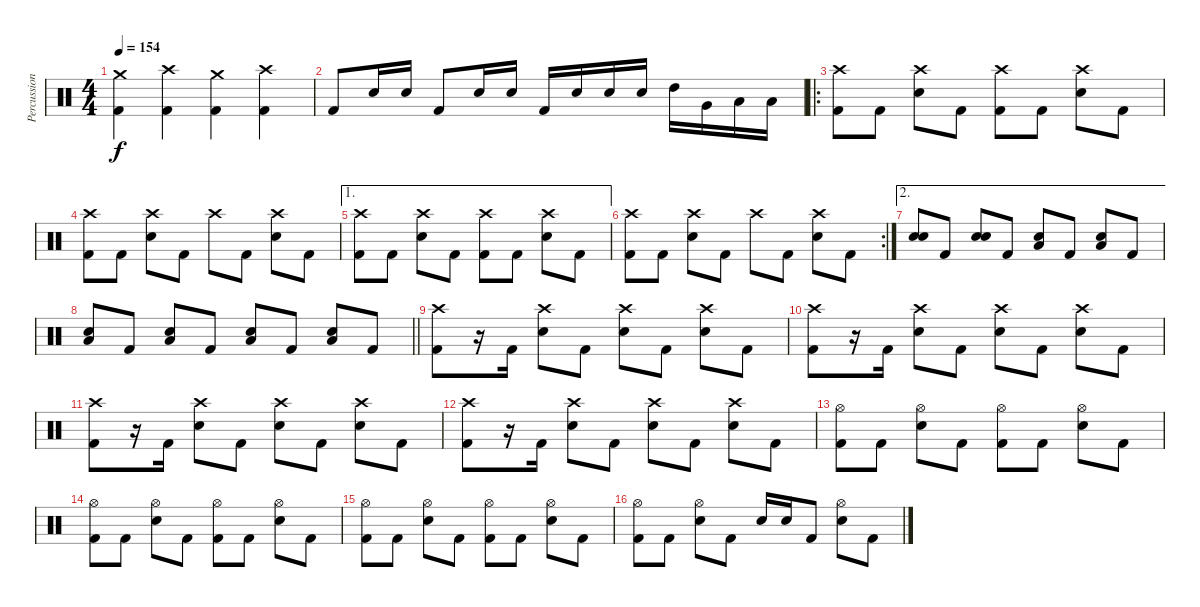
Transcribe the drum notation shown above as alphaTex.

\track ("Percussion" "Percussion") {instrument percussion}
\staff {score}
\articulation defaults
\ts (4 4)
\tempo 154
\clef neutral
\ks c
("Crash medium (hit)" "Kick (hit) 2").4{dy f} ("Crash high (hit)" "Kick (hit) 2").4 ("Crash medium (hit)" "Kick (hit) 2").4 ("Crash high (hit)" "Kick (hit) 2").4 |
"Kick (hit) 2".8 "Snare (hit) 2".16 "Snare (hit) 2".16 "Kick (hit) 2".8 "Snare (hit) 2".16 "Snare (hit) 2".16 "Kick (hit) 2".16 "Snare (hit) 2".16 "Snare (hit) 2".16 "Snare (hit) 2".16 "High Tom (hit)".16 "Very Low Tom (hit)".16 "Low Floor Tom (hit)".16 "Low Floor Tom (hit)".16 |
\ro
("Crash high (hit)" "Kick (hit) 2").8 "Kick (hit) 2".8 ("Crash high (hit)" "Snare (hit) 2").8 "Kick (hit) 2".8 ("Crash high (hit)" "Kick (hit) 2").8 "Kick (hit) 2".8 ("Crash high (hit)" "Snare (hit) 2").8 "Kick (hit) 2".8 |
("Crash high (hit)" "Kick (hit) 2").8 "Kick (hit) 2".8 ("Crash high (hit)" "Snare (hit) 2").8 "Kick (hit) 2".8 "Crash high (hit)".8 "Kick (hit) 2".8 ("Crash high (hit)" "Snare (hit) 2").8 "Kick (hit) 2".8 |
\ae 1
("Crash high (hit)" "Kick (hit) 2").8 "Kick (hit) 2".8 ("Crash high (hit)" "Snare (hit) 2").8 "Kick (hit) 2".8 ("Crash high (hit)" "Kick (hit) 2").8 "Kick (hit) 2".8 ("Crash high (hit)" "Snare (hit) 2").8 "Kick (hit) 2".8 |
\rc 2
("Crash high (hit)" "Kick (hit) 2").8 "Kick (hit) 2".8 ("Crash high (hit)" "Snare (hit) 2").8 "Kick (hit) 2".8 "Crash high (hit)".8 "Kick (hit) 2".8 ("Crash high (hit)" "Snare (hit) 2").8 "Kick (hit) 2".8 |
\ae 2
("Snare (hit) 2" "Snare (hit) 2").8 "Kick (hit) 2".8 ("Snare (hit) 2" "Snare (hit) 2").8 "Kick (hit) 2".8 ("Snare (hit) 2" "Low Floor Tom (hit)").8 "Kick (hit) 2".8 ("Snare (hit) 2" "Low Floor Tom (hit)").8 "Kick (hit) 2".8 |
\barLineRight lightlight
("Snare (hit) 2" "Low Floor Tom (hit)").8 "Kick (hit) 2".8 ("Snare (hit) 2" "Low Floor Tom (hit)").8 "Kick (hit) 2".8 ("Snare (hit) 2" "Low Floor Tom (hit)").8 "Kick (hit) 2".8 ("Snare (hit) 2" "Low Floor Tom (hit)").8 "Kick (hit) 2".8 |
("Crash high (hit)" "Kick (hit) 2").8 r.16 "Kick (hit) 2".16 ("Crash high (hit)" "Snare (hit) 2").8 "Kick (hit) 2".8 ("Crash high (hit)" "Snare (hit) 2").8 "Kick (hit) 2".8 ("Crash high (hit)" "Snare (hit) 2").8 "Kick (hit) 2".8 |
("Crash high (hit)" "Kick (hit) 2").8 r.16 "Kick (hit) 2".16 ("Crash high (hit)" "Snare (hit) 2").8 "Kick (hit) 2".8 ("Crash high (hit)" "Snare (hit) 2").8 "Kick (hit) 2".8 ("Crash high (hit)" "Snare (hit) 2").8 "Kick (hit) 2".8 |
("Crash high (hit)" "Kick (hit) 2").8 r.16 "Kick (hit) 2".16 ("Crash high (hit)" "Snare (hit) 2").8 "Kick (hit) 2".8 ("Crash high (hit)" "Snare (hit) 2").8 "Kick (hit) 2".8 ("Crash high (hit)" "Snare (hit) 2").8 "Kick (hit) 2".8 |
("Crash high (hit)" "Kick (hit) 2").8 r.16 "Kick (hit) 2".16 ("Crash high (hit)" "Snare (hit) 2").8 "Kick (hit) 2".8 ("Crash high (hit)" "Snare (hit) 2").8 "Kick (hit) 2".8 ("Crash high (hit)" "Snare (hit) 2").8 "Kick (hit) 2".8 |
("Hi-Hat (open)" "Kick (hit) 2").8 "Kick (hit) 2".8 ("Hi-Hat (open)" "Snare (hit) 2").8 "Kick (hit) 2".8 ("Hi-Hat (open)" "Kick (hit) 2").8 "Kick (hit) 2".8 ("Hi-Hat (open)" "Snare (hit) 2").8 "Kick (hit) 2".8 |
("Hi-Hat (open)" "Kick (hit) 2").8 "Kick (hit) 2".8 ("Hi-Hat (open)" "Snare (hit) 2").8 "Kick (hit) 2".8 ("Hi-Hat (open)" "Kick (hit) 2").8 "Kick (hit) 2".8 ("Hi-Hat (open)" "Snare (hit) 2").8 "Kick (hit) 2".8 |
("Hi-Hat (open)" "Kick (hit) 2").8 "Kick (hit) 2".8 ("Hi-Hat (open)" "Snare (hit) 2").8 "Kick (hit) 2".8 ("Hi-Hat (open)" "Kick (hit) 2").8 "Kick (hit) 2".8 ("Hi-Hat (open)" "Snare (hit) 2").8 "Kick (hit) 2".8 |
("Hi-Hat (open)" "Kick (hit) 2").8 "Kick (hit) 2".8 ("Hi-Hat (open)" "Snare (hit) 2").8 "Kick (hit) 2".8 "Snare (hit) 2".16 "Snare (hit) 2".16 "Kick (hit) 2".8 ("Hi-Hat (open)" "Snare (hit) 2").8 "Kick (hit) 2".8
